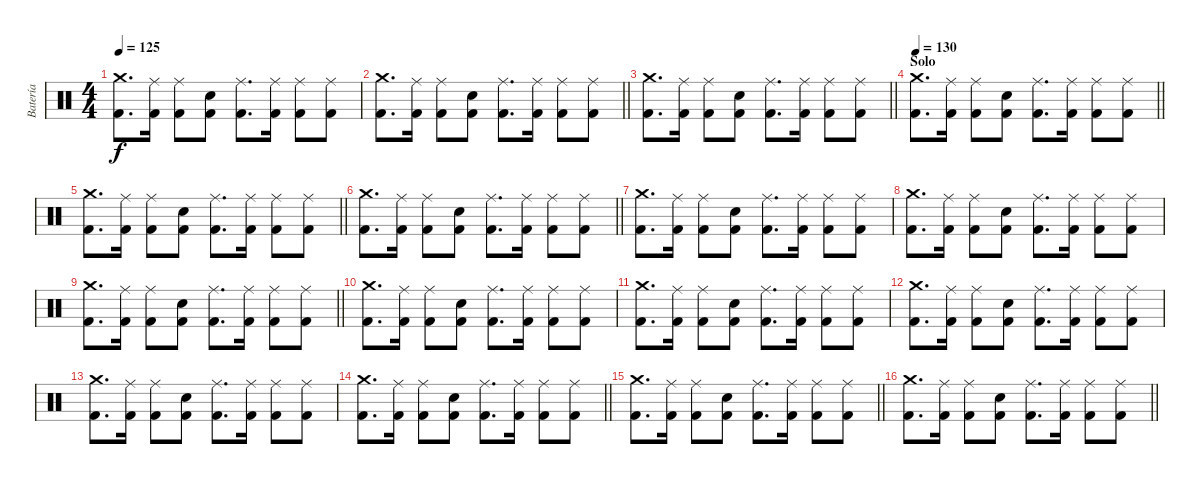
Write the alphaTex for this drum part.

\track ("Batería" "Batería") {instrument percussion}
\staff {score}
\articulation defaults
\ts (4 4)
\tempo 125
\clef neutral
\ks c
("Crash medium (hit)" "Kick (hit) 2").8{d dy f} ("Ride (middle)" "Kick (hit) 2").16 ("Ride (middle)" "Kick (hit) 2").8 ("Electric Snare (hit)" "Kick (hit) 2").8 ("Ride (middle)" "Kick (hit) 2").8{d} ("Ride (middle)" "Kick (hit) 2").16 ("Ride (middle)" "Kick (hit) 2").8 ("Ride (middle)" "Kick (hit) 2").8 |
\barLineRight lightlight
("Crash medium (hit)" "Kick (hit) 2").8{d} ("Ride (middle)" "Kick (hit) 2").16 ("Ride (middle)" "Kick (hit) 2").8 ("Electric Snare (hit)" "Kick (hit) 2").8 ("Ride (middle)" "Kick (hit) 2").8{d} ("Ride (middle)" "Kick (hit) 2").16 ("Ride (middle)" "Kick (hit) 2").8 ("Ride (middle)" "Kick (hit) 2").8 |
\barLineRight lightlight
("Crash medium (hit)" "Kick (hit) 2").8{d} ("Ride (middle)" "Kick (hit) 2").16 ("Ride (middle)" "Kick (hit) 2").8 ("Electric Snare (hit)" "Kick (hit) 2").8 ("Ride (middle)" "Kick (hit) 2").8{d} ("Ride (middle)" "Kick (hit) 2").16 ("Ride (middle)" "Kick (hit) 2").8 ("Ride (middle)" "Kick (hit) 2").8 |
\section ("" "Solo")
\tempo 130
\barLineRight lightlight
("Crash medium (hit)" "Kick (hit) 2").8{d} ("Ride (middle)" "Kick (hit) 2").16 ("Ride (middle)" "Kick (hit) 2").8 ("Electric Snare (hit)" "Kick (hit) 2").8 ("Ride (middle)" "Kick (hit) 2").8{d} ("Ride (middle)" "Kick (hit) 2").16 ("Ride (middle)" "Kick (hit) 2").8 ("Ride (middle)" "Kick (hit) 2").8 |
\barLineRight lightlight
("Crash medium (hit)" "Kick (hit) 2").8{d} ("Ride (middle)" "Kick (hit) 2").16 ("Ride (middle)" "Kick (hit) 2").8 ("Electric Snare (hit)" "Kick (hit) 2").8 ("Ride (middle)" "Kick (hit) 2").8{d} ("Ride (middle)" "Kick (hit) 2").16 ("Ride (middle)" "Kick (hit) 2").8 ("Ride (middle)" "Kick (hit) 2").8 |
\barLineRight lightlight
("Crash medium (hit)" "Kick (hit) 2").8{d} ("Ride (middle)" "Kick (hit) 2").16 ("Ride (middle)" "Kick (hit) 2").8 ("Electric Snare (hit)" "Kick (hit) 2").8 ("Ride (middle)" "Kick (hit) 2").8{d} ("Ride (middle)" "Kick (hit) 2").16 ("Ride (middle)" "Kick (hit) 2").8 ("Ride (middle)" "Kick (hit) 2").8 |
("Crash medium (hit)" "Kick (hit) 2").8{d} ("Ride (middle)" "Kick (hit) 2").16 ("Ride (middle)" "Kick (hit) 2").8 ("Electric Snare (hit)" "Kick (hit) 2").8 ("Ride (middle)" "Kick (hit) 2").8{d} ("Ride (middle)" "Kick (hit) 2").16 ("Ride (middle)" "Kick (hit) 2").8 ("Ride (middle)" "Kick (hit) 2").8 |
("Crash medium (hit)" "Kick (hit) 2").8{d} ("Ride (middle)" "Kick (hit) 2").16 ("Ride (middle)" "Kick (hit) 2").8 ("Electric Snare (hit)" "Kick (hit) 2").8 ("Ride (middle)" "Kick (hit) 2").8{d} ("Ride (middle)" "Kick (hit) 2").16 ("Ride (middle)" "Kick (hit) 2").8 ("Ride (middle)" "Kick (hit) 2").8 |
\barLineRight lightlight
("Crash medium (hit)" "Kick (hit) 2").8{d} ("Ride (middle)" "Kick (hit) 2").16 ("Ride (middle)" "Kick (hit) 2").8 ("Electric Snare (hit)" "Kick (hit) 2").8 ("Ride (middle)" "Kick (hit) 2").8{d} ("Ride (middle)" "Kick (hit) 2").16 ("Ride (middle)" "Kick (hit) 2").8 ("Ride (middle)" "Kick (hit) 2").8 |
("Crash medium (hit)" "Kick (hit) 2").8{d} ("Ride (middle)" "Kick (hit) 2").16 ("Ride (middle)" "Kick (hit) 2").8 ("Electric Snare (hit)" "Kick (hit) 2").8 ("Ride (middle)" "Kick (hit) 2").8{d} ("Ride (middle)" "Kick (hit) 2").16 ("Ride (middle)" "Kick (hit) 2").8 ("Ride (middle)" "Kick (hit) 2").8 |
("Crash medium (hit)" "Kick (hit) 2").8{d} ("Ride (middle)" "Kick (hit) 2").16 ("Ride (middle)" "Kick (hit) 2").8 ("Electric Snare (hit)" "Kick (hit) 2").8 ("Ride (middle)" "Kick (hit) 2").8{d} ("Ride (middle)" "Kick (hit) 2").16 ("Ride (middle)" "Kick (hit) 2").8 ("Ride (middle)" "Kick (hit) 2").8 |
("Crash medium (hit)" "Kick (hit) 2").8{d} ("Ride (middle)" "Kick (hit) 2").16 ("Ride (middle)" "Kick (hit) 2").8 ("Electric Snare (hit)" "Kick (hit) 2").8 ("Ride (middle)" "Kick (hit) 2").8{d} ("Ride (middle)" "Kick (hit) 2").16 ("Ride (middle)" "Kick (hit) 2").8 ("Ride (middle)" "Kick (hit) 2").8 |
("Crash medium (hit)" "Kick (hit) 2").8{d} ("Ride (middle)" "Kick (hit) 2").16 ("Ride (middle)" "Kick (hit) 2").8 ("Electric Snare (hit)" "Kick (hit) 2").8 ("Ride (middle)" "Kick (hit) 2").8{d} ("Ride (middle)" "Kick (hit) 2").16 ("Ride (middle)" "Kick (hit) 2").8 ("Ride (middle)" "Kick (hit) 2").8 |
\barLineRight lightlight
("Crash medium (hit)" "Kick (hit) 2").8{d} ("Ride (middle)" "Kick (hit) 2").16 ("Ride (middle)" "Kick (hit) 2").8 ("Electric Snare (hit)" "Kick (hit) 2").8 ("Ride (middle)" "Kick (hit) 2").8{d} ("Ride (middle)" "Kick (hit) 2").16 ("Ride (middle)" "Kick (hit) 2").8 ("Ride (middle)" "Kick (hit) 2").8 |
\section ("" "")
\barLineRight lightlight
("Crash medium (hit)" "Kick (hit) 2").8{d} ("Ride (middle)" "Kick (hit) 2").16 ("Ride (middle)" "Kick (hit) 2").8 ("Electric Snare (hit)" "Kick (hit) 2").8 ("Ride (middle)" "Kick (hit) 2").8{d} ("Ride (middle)" "Kick (hit) 2").16 ("Ride (middle)" "Kick (hit) 2").8 ("Ride (middle)" "Kick (hit) 2").8 |
\barLineRight lightlight
("Crash medium (hit)" "Kick (hit) 2").8{d} ("Ride (middle)" "Kick (hit) 2").16 ("Ride (middle)" "Kick (hit) 2").8 ("Electric Snare (hit)" "Kick (hit) 2").8 ("Ride (middle)" "Kick (hit) 2").8{d} ("Ride (middle)" "Kick (hit) 2").16 ("Ride (middle)" "Kick (hit) 2").8 ("Ride (middle)" "Kick (hit) 2").8
